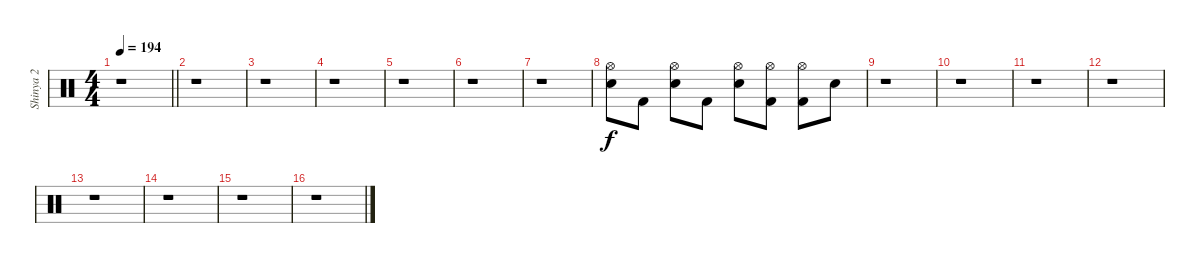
\track ("Shinya 2" "Shinya 2") {instrument percussion}
\staff {score}
\articulation defaults
\ts (4 4)
\tempo 194
\clef neutral
\barLineRight lightlight
\ks c
r.1{dy f} |
r.1 |
r.1 |
r.1 |
r.1 |
r.1 |
r.1 |
("Hi-Hat (open)" "Snare (hit) 2").8 "Kick (hit) 2".8 ("Hi-Hat (open)" "Snare (hit) 2").8 "Kick (hit) 2".8 ("Hi-Hat (open)" "Snare (hit) 2").8 ("Hi-Hat (open)" "Kick (hit) 2").8 ("Hi-Hat (open)" "Kick (hit) 2").8 "Snare (hit) 2".8 |
r.1 |
r.1 |
r.1 |
r.1 |
r.1 |
r.1 |
r.1 |
r.1
